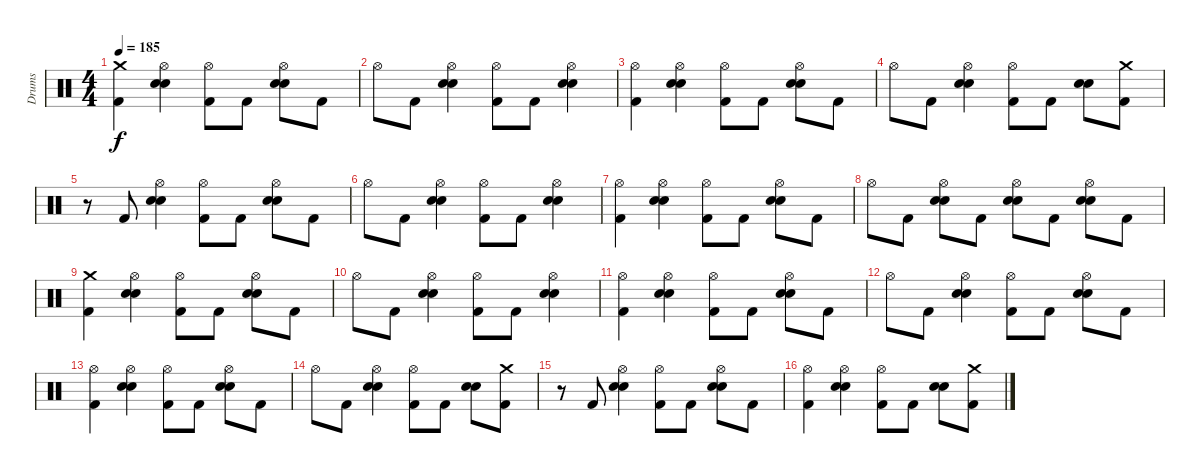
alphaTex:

\track ("Drums" "Drums") {instrument percussion}
\staff {score}
\articulation defaults
\ts (4 4)
\tempo 185
\clef neutral
\ks c
("Crash medium (hit)" "Kick (hit) 2").4{dy f} ("Hi-Hat (open)" "Snare (hit) 2" "Electric Snare (hit)").4 ("Hi-Hat (open)" "Kick (hit) 2").8 "Kick (hit) 2".8 ("Hi-Hat (open)" "Snare (hit) 2" "Electric Snare (hit)").8 "Kick (hit) 2".8 |
"Hi-Hat (open)".8 "Kick (hit) 2".8 ("Hi-Hat (open)" "Electric Snare (hit)" "Snare (hit) 2").4 ("Hi-Hat (open)" "Kick (hit) 2").8 "Kick (hit) 2".8 ("Hi-Hat (open)" "Electric Snare (hit)" "Snare (hit) 2").4 |
("Hi-Hat (open)" "Kick (hit) 2").4 ("Hi-Hat (open)" "Electric Snare (hit)" "Snare (hit) 2").4 ("Hi-Hat (open)" "Kick (hit) 2").8 "Kick (hit) 2".8 ("Hi-Hat (open)" "Electric Snare (hit)" "Snare (hit) 2").8 "Kick (hit) 2".8 |
"Hi-Hat (open)".8 "Kick (hit) 2".8 ("Hi-Hat (open)" "Electric Snare (hit)" "Snare (hit) 2").4 ("Hi-Hat (open)" "Kick (hit) 2").8 "Kick (hit) 2".8 ("Electric Snare (hit)" "Snare (hit) 2").8 ("Crash medium (hit)" "Kick (hit) 2").8 |
r.8 "Kick (hit) 2".8 ("Hi-Hat (open)" "Electric Snare (hit)" "Snare (hit) 2").4 ("Hi-Hat (open)" "Kick (hit) 2").8 "Kick (hit) 2".8 ("Hi-Hat (open)" "Electric Snare (hit)" "Snare (hit) 2").8 "Kick (hit) 2".8 |
"Hi-Hat (open)".8 "Kick (hit) 2".8 ("Hi-Hat (open)" "Electric Snare (hit)" "Snare (hit) 2").4 ("Hi-Hat (open)" "Kick (hit) 2").8 "Kick (hit) 2".8 ("Hi-Hat (open)" "Electric Snare (hit)" "Snare (hit) 2").4 |
("Hi-Hat (open)" "Kick (hit) 2").4 ("Hi-Hat (open)" "Electric Snare (hit)" "Snare (hit) 2").4 ("Hi-Hat (open)" "Kick (hit) 2").8 "Kick (hit) 2".8 ("Hi-Hat (open)" "Electric Snare (hit)" "Snare (hit) 2").8 "Kick (hit) 2".8 |
"Hi-Hat (open)".8 "Kick (hit) 2".8 ("Hi-Hat (open)" "Electric Snare (hit)" "Snare (hit) 2").8 "Kick (hit) 2".8 ("Hi-Hat (open)" "Electric Snare (hit)" "Snare (hit) 2").8 "Kick (hit) 2".8 ("Hi-Hat (open)" "Electric Snare (hit)" "Snare (hit) 2").8 "Kick (hit) 2".8 |
("Crash medium (hit)" "Kick (hit) 2").4 ("Hi-Hat (open)" "Snare (hit) 2" "Electric Snare (hit)").4 ("Hi-Hat (open)" "Kick (hit) 2").8 "Kick (hit) 2".8 ("Hi-Hat (open)" "Snare (hit) 2" "Electric Snare (hit)").8 "Kick (hit) 2".8 |
"Hi-Hat (open)".8 "Kick (hit) 2".8 ("Hi-Hat (open)" "Electric Snare (hit)" "Snare (hit) 2").4 ("Hi-Hat (open)" "Kick (hit) 2").8 "Kick (hit) 2".8 ("Hi-Hat (open)" "Electric Snare (hit)" "Snare (hit) 2").4 |
("Hi-Hat (open)" "Kick (hit) 2").4 ("Hi-Hat (open)" "Electric Snare (hit)" "Snare (hit) 2").4 ("Hi-Hat (open)" "Kick (hit) 2").8 "Kick (hit) 2".8 ("Hi-Hat (open)" "Electric Snare (hit)" "Snare (hit) 2").8 "Kick (hit) 2".8 |
"Hi-Hat (open)".8 "Kick (hit) 2".8 ("Hi-Hat (open)" "Electric Snare (hit)" "Snare (hit) 2").4 ("Hi-Hat (open)" "Kick (hit) 2").8 "Kick (hit) 2".8 ("Hi-Hat (open)" "Electric Snare (hit)" "Snare (hit) 2").8 "Kick (hit) 2".8 |
("Hi-Hat (open)" "Kick (hit) 2").4 ("Hi-Hat (open)" "Electric Snare (hit)" "Snare (hit) 2").4 ("Hi-Hat (open)" "Kick (hit) 2").8 "Kick (hit) 2".8 ("Hi-Hat (open)" "Electric Snare (hit)" "Snare (hit) 2").8 "Kick (hit) 2".8 |
"Hi-Hat (open)".8 "Kick (hit) 2".8 ("Hi-Hat (open)" "Electric Snare (hit)" "Snare (hit) 2").4 ("Hi-Hat (open)" "Kick (hit) 2").8 "Kick (hit) 2".8 ("Electric Snare (hit)" "Snare (hit) 2").8 ("Crash medium (hit)" "Kick (hit) 2").8 |
r.8 "Kick (hit) 2".8 ("Hi-Hat (open)" "Electric Snare (hit)" "Snare (hit) 2").4 ("Hi-Hat (open)" "Kick (hit) 2").8 "Kick (hit) 2".8 ("Hi-Hat (open)" "Electric Snare (hit)" "Snare (hit) 2").8 "Kick (hit) 2".8 |
("Hi-Hat (open)" "Kick (hit) 2").4 ("Hi-Hat (open)" "Electric Snare (hit)" "Snare (hit) 2").4 ("Hi-Hat (open)" "Kick (hit) 2").8 "Kick (hit) 2".8 ("Electric Snare (hit)" "Snare (hit) 2").8 ("Crash medium (hit)" "Kick (hit) 2").8
